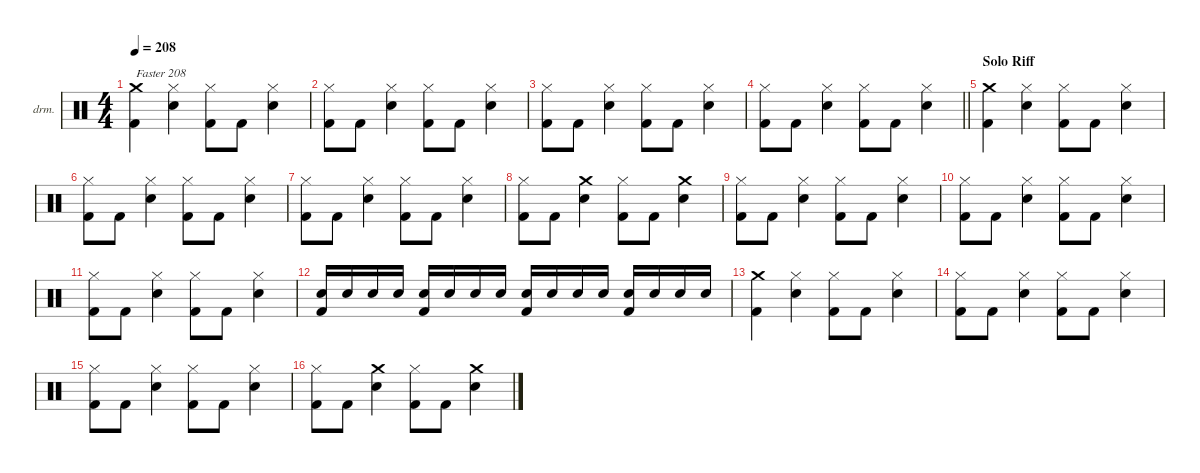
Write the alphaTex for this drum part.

\defaultSystemsLayout 4
\hideDynamics
\bracketExtendMode nobrackets
\firstSystemTrackNameOrientation horizontal
\otherSystemsTrackNameOrientation horizontal
\track ("Drums" "drm.") {instrument percussion}
\staff {score}
\articulation defaults
\ts (4 4)
\tempo 208
\clef neutral
\ks c
("Kick (hit) 2" "Crash medium (hit)").4{txt "Faster 208" dy f} ("Hi-Hat (closed)" "Snare (hit) 2").4 ("Kick (hit) 2" "Hi-Hat (closed)").8 "Kick (hit) 2".8 ("Snare (hit) 2" "Hi-Hat (closed)").4 |
("Kick (hit) 2" "Hi-Hat (closed)").8 "Kick (hit) 2".8 ("Snare (hit) 2" "Hi-Hat (closed)").4 ("Kick (hit) 2" "Hi-Hat (closed)").8 "Kick (hit) 2".8 ("Snare (hit) 2" "Hi-Hat (closed)").4 |
("Kick (hit) 2" "Hi-Hat (closed)").8 "Kick (hit) 2".8 ("Snare (hit) 2" "Hi-Hat (closed)").4 ("Kick (hit) 2" "Hi-Hat (closed)").8 "Kick (hit) 2".8 ("Snare (hit) 2" "Hi-Hat (closed)").4 |
\barLineRight lightlight
("Kick (hit) 2" "Hi-Hat (closed)").8 "Kick (hit) 2".8 ("Snare (hit) 2" "Hi-Hat (closed)").4 ("Kick (hit) 2" "Hi-Hat (closed)").8 "Kick (hit) 2".8 ("Snare (hit) 2" "Hi-Hat (closed)").4 |
\section ("" "Solo Riff")
("Kick (hit) 2" "Crash medium (hit)").4 ("Hi-Hat (closed)" "Snare (hit) 2").4 ("Kick (hit) 2" "Hi-Hat (closed)").8 "Kick (hit) 2".8 ("Snare (hit) 2" "Hi-Hat (closed)").4 |
("Kick (hit) 2" "Hi-Hat (closed)").8 "Kick (hit) 2".8 ("Snare (hit) 2" "Hi-Hat (closed)").4 ("Kick (hit) 2" "Hi-Hat (closed)").8 "Kick (hit) 2".8 ("Snare (hit) 2" "Hi-Hat (closed)").4 |
("Kick (hit) 2" "Hi-Hat (closed)").8 "Kick (hit) 2".8 ("Snare (hit) 2" "Hi-Hat (closed)").4 ("Kick (hit) 2" "Hi-Hat (closed)").8 "Kick (hit) 2".8 ("Snare (hit) 2" "Hi-Hat (closed)").4 |
("Hi-Hat (closed)" "Kick (hit) 2").8 "Kick (hit) 2".8 ("Snare (hit) 2" "Crash medium (hit)").4 ("Hi-Hat (closed)" "Kick (hit) 2").8 "Kick (hit) 2".8 ("Snare (hit) 2" "Crash medium (hit)").4 |
("Kick (hit) 2" "Hi-Hat (closed)").8 "Kick (hit) 2".8 ("Snare (hit) 2" "Hi-Hat (closed)").4 ("Kick (hit) 2" "Hi-Hat (closed)").8 "Kick (hit) 2".8 ("Snare (hit) 2" "Hi-Hat (closed)").4 |
("Kick (hit) 2" "Hi-Hat (closed)").8 "Kick (hit) 2".8 ("Snare (hit) 2" "Hi-Hat (closed)").4 ("Kick (hit) 2" "Hi-Hat (closed)").8 "Kick (hit) 2".8 ("Snare (hit) 2" "Hi-Hat (closed)").4 |
("Kick (hit) 2" "Hi-Hat (closed)").8 "Kick (hit) 2".8 ("Snare (hit) 2" "Hi-Hat (closed)").4 ("Kick (hit) 2" "Hi-Hat (closed)").8 "Kick (hit) 2".8 ("Snare (hit) 2" "Hi-Hat (closed)").4 |
("Snare (hit) 2" "Kick (hit) 2").16 "Snare (hit) 2".16 "Snare (hit) 2".16 "Snare (hit) 2".16 ("Snare (hit) 2" "Kick (hit) 2").16 "Snare (hit) 2".16 "Snare (hit) 2".16 "Snare (hit) 2".16 ("Snare (hit) 2" "Kick (hit) 2").16 "Snare (hit) 2".16 "Snare (hit) 2".16 "Snare (hit) 2".16 ("Snare (hit) 2" "Kick (hit) 2").16 "Snare (hit) 2".16 "Snare (hit) 2".16 "Snare (hit) 2".16 |
("Kick (hit) 2" "Crash medium (hit)").4 ("Hi-Hat (closed)" "Snare (hit) 2").4 ("Kick (hit) 2" "Hi-Hat (closed)").8 "Kick (hit) 2".8 ("Snare (hit) 2" "Hi-Hat (closed)").4 |
("Kick (hit) 2" "Hi-Hat (closed)").8 "Kick (hit) 2".8 ("Snare (hit) 2" "Hi-Hat (closed)").4 ("Kick (hit) 2" "Hi-Hat (closed)").8 "Kick (hit) 2".8 ("Snare (hit) 2" "Hi-Hat (closed)").4 |
("Kick (hit) 2" "Hi-Hat (closed)").8 "Kick (hit) 2".8 ("Snare (hit) 2" "Hi-Hat (closed)").4 ("Kick (hit) 2" "Hi-Hat (closed)").8 "Kick (hit) 2".8 ("Snare (hit) 2" "Hi-Hat (closed)").4 |
("Kick (hit) 2" "Hi-Hat (closed)").8 "Kick (hit) 2".8 ("Crash medium (hit)" "Snare (hit) 2").4 ("Kick (hit) 2" "Hi-Hat (closed)").8 "Kick (hit) 2".8 ("Crash medium (hit)" "Snare (hit) 2").4
